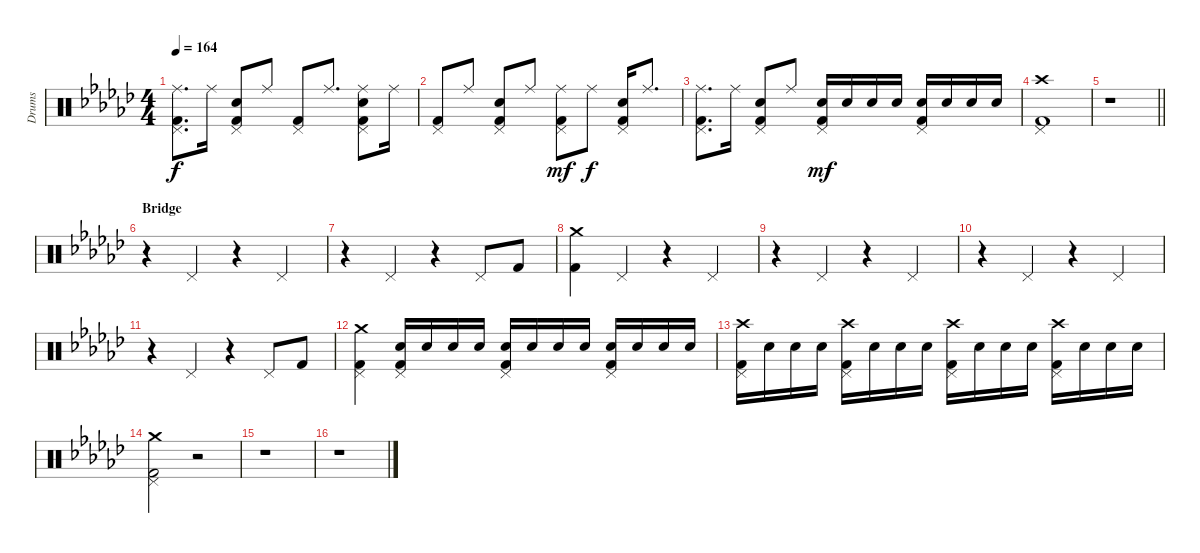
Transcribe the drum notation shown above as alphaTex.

\track ("Drums" "Drums") {instrument percussion}
\staff {score}
\articulation defaults
\ts (4 4)
\tempo 164
\clef neutral
\ks gb
("Ride (middle)" "Pedal Hi-Hat (hit)" "Kick (hit) 2").8{d dy f} "Ride (middle)".16 ("Snare (hit) 2" "Pedal Hi-Hat (hit)" "Kick (hit) 2").8 "Ride (middle)".8 ("Pedal Hi-Hat (hit)" "Kick (hit) 2").8 "Ride (middle)".8{d} ("Ride (middle)" "Snare (hit) 2" "Pedal Hi-Hat (hit)" "Kick (hit) 2").8 "Ride (middle)".16 |
("Pedal Hi-Hat (hit)" "Kick (hit) 2").8 "Ride (middle)".8 ("Snare (hit) 2" "Pedal Hi-Hat (hit)" "Kick (hit) 2").8 "Ride (middle)".8 ("Ride (middle)" "Pedal Hi-Hat (hit)" "Kick (hit) 2").8{dy mf} "Ride (middle)".8{dy f} ("Snare (hit) 2" "Pedal Hi-Hat (hit)" "Kick (hit) 2").16 "Ride (middle)".8{d} |
("Ride (middle)" "Pedal Hi-Hat (hit)" "Kick (hit) 2").8{d} "Ride (middle)".16 ("Snare (hit) 2" "Pedal Hi-Hat (hit)" "Kick (hit) 2").8 "Ride (middle)".8 ("Snare (hit) 2" "Pedal Hi-Hat (hit)" "Kick (hit) 2").16{dy mf} "Snare (hit) 2".16 "Snare (hit) 2".16 "Snare (hit) 2".16 ("Snare (hit) 2" "Pedal Hi-Hat (hit)" "Kick (hit) 2").16 "Snare (hit) 2".16 "Snare (hit) 2".16 "Snare (hit) 2".16 |
("Crash high (hit)" "Pedal Hi-Hat (hit)" "Kick (hit) 2").1 |
\barLineRight lightlight
r.1 |
\section ("" "Bridge")
r.4 "Pedal Hi-Hat (hit)".4 r.4 "Pedal Hi-Hat (hit)".4 |
r.4 "Pedal Hi-Hat (hit)".4 r.4 "Pedal Hi-Hat (hit)".8 "Kick (hit) 2".8 |
("Crash medium (hit)" "Kick (hit) 2").4 "Pedal Hi-Hat (hit)".4 r.4 "Pedal Hi-Hat (hit)".4 |
r.4 "Pedal Hi-Hat (hit)".4 r.4 "Pedal Hi-Hat (hit)".4 |
r.4 "Pedal Hi-Hat (hit)".4 r.4 "Pedal Hi-Hat (hit)".4 |
r.4 "Pedal Hi-Hat (hit)".4 r.4 "Pedal Hi-Hat (hit)".8 "Kick (hit) 2".8 |
("Crash medium (hit)" "Pedal Hi-Hat (hit)" "Kick (hit) 2").4 ("Snare (hit) 2" "Pedal Hi-Hat (hit)" "Kick (hit) 2").16 "Snare (hit) 2".16 "Snare (hit) 2".16 "Snare (hit) 2".16 ("Snare (hit) 2" "Pedal Hi-Hat (hit)" "Kick (hit) 2").16 "Snare (hit) 2".16 "Snare (hit) 2".16 "Snare (hit) 2".16 ("Snare (hit) 2" "Pedal Hi-Hat (hit)" "Kick (hit) 2").16 "Snare (hit) 2".16 "Snare (hit) 2".16 "Snare (hit) 2".16 |
("Crash high (hit)" "Pedal Hi-Hat (hit)" "Kick (hit) 2").16 "Snare (hit) 2".16 "Snare (hit) 2".16 "Snare (hit) 2".16 ("Crash high (hit)" "Pedal Hi-Hat (hit)" "Kick (hit) 2").16 "Snare (hit) 2".16 "Snare (hit) 2".16 "Snare (hit) 2".16 ("Crash high (hit)" "Pedal Hi-Hat (hit)" "Kick (hit) 2").16 "Snare (hit) 2".16 "Snare (hit) 2".16 "Snare (hit) 2".16 ("Crash high (hit)" "Pedal Hi-Hat (hit)" "Kick (hit) 2").16 "Snare (hit) 2".16 "Snare (hit) 2".16 "Snare (hit) 2".16 |
("Crash medium (hit)" "Pedal Hi-Hat (hit)" "Kick (hit) 2").2 r.2 |
r.1 |
r.1
